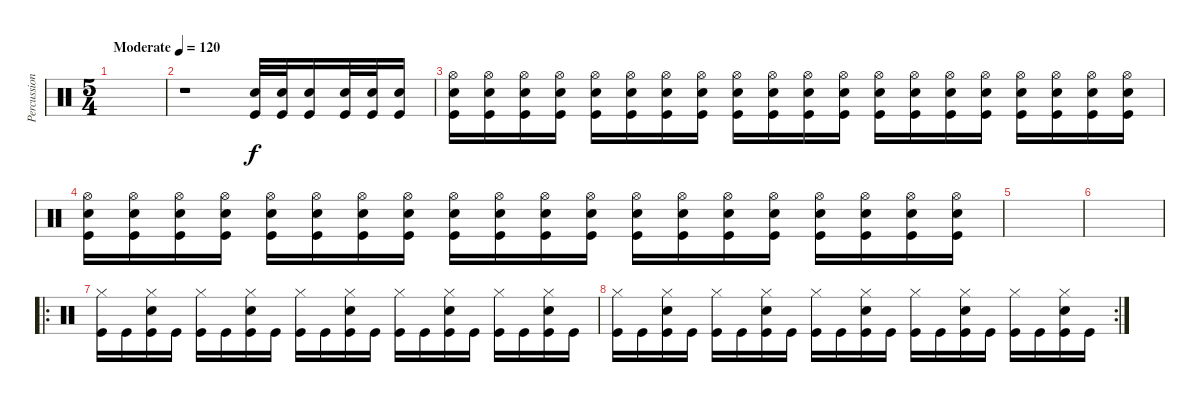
\track ("Percussion" "Percussion") {instrument percussion}
\staff {score}
\articulation defaults
\ts (5 4)
\tempo (120 "Moderate")
\clef neutral
\ks c
|
r.1 ("Snare (hit) 2" "Kick (hit)").32 ("Snare (hit) 2" "Kick (hit)").32 ("Snare (hit) 2" "Kick (hit)").16 ("Snare (hit) 2" "Kick (hit)").32 ("Snare (hit) 2" "Kick (hit)").32 ("Snare (hit) 2" "Kick (hit)").16 |
("Hi-Hat (open)" "Snare (hit) 2" "Kick (hit)").16 ("Hi-Hat (open)" "Snare (hit) 2" "Kick (hit)").16 ("Hi-Hat (open)" "Snare (hit) 2" "Kick (hit)").16 ("Hi-Hat (open)" "Snare (hit) 2" "Kick (hit)").16 ("Hi-Hat (open)" "Snare (hit) 2" "Kick (hit)").16 ("Hi-Hat (open)" "Snare (hit) 2" "Kick (hit)").16 ("Hi-Hat (open)" "Snare (hit) 2" "Kick (hit)").16 ("Hi-Hat (open)" "Snare (hit) 2" "Kick (hit)").16 ("Hi-Hat (open)" "Snare (hit) 2" "Kick (hit)").16 ("Hi-Hat (open)" "Snare (hit) 2" "Kick (hit)").16 ("Hi-Hat (open)" "Snare (hit) 2" "Kick (hit)").16 ("Hi-Hat (open)" "Snare (hit) 2" "Kick (hit)").16 ("Hi-Hat (open)" "Snare (hit) 2" "Kick (hit)").16 ("Hi-Hat (open)" "Snare (hit) 2" "Kick (hit)").16 ("Hi-Hat (open)" "Snare (hit) 2" "Kick (hit)").16 ("Hi-Hat (open)" "Snare (hit) 2" "Kick (hit)").16 ("Hi-Hat (open)" "Snare (hit) 2" "Kick (hit)").16 ("Hi-Hat (open)" "Snare (hit) 2" "Kick (hit)").16 ("Hi-Hat (open)" "Snare (hit) 2" "Kick (hit)").16 ("Hi-Hat (open)" "Snare (hit) 2" "Kick (hit)").16 |
("Hi-Hat (open)" "Snare (hit) 2" "Kick (hit)").16 ("Hi-Hat (open)" "Snare (hit) 2" "Kick (hit)").16 ("Hi-Hat (open)" "Snare (hit) 2" "Kick (hit)").16 ("Hi-Hat (open)" "Snare (hit) 2" "Kick (hit)").16 ("Hi-Hat (open)" "Snare (hit) 2" "Kick (hit)").16 ("Hi-Hat (open)" "Snare (hit) 2" "Kick (hit)").16 ("Hi-Hat (open)" "Snare (hit) 2" "Kick (hit)").16 ("Hi-Hat (open)" "Snare (hit) 2" "Kick (hit)").16 ("Hi-Hat (open)" "Snare (hit) 2" "Kick (hit)").16 ("Hi-Hat (open)" "Snare (hit) 2" "Kick (hit)").16 ("Hi-Hat (open)" "Snare (hit) 2" "Kick (hit)").16 ("Hi-Hat (open)" "Snare (hit) 2" "Kick (hit)").16 ("Hi-Hat (open)" "Snare (hit) 2" "Kick (hit)").16 ("Hi-Hat (open)" "Snare (hit) 2" "Kick (hit)").16 ("Hi-Hat (open)" "Snare (hit) 2" "Kick (hit)").16 ("Hi-Hat (open)" "Snare (hit) 2" "Kick (hit)").16 ("Hi-Hat (open)" "Snare (hit) 2" "Kick (hit)").16 ("Hi-Hat (open)" "Snare (hit) 2" "Kick (hit)").16 ("Hi-Hat (open)" "Snare (hit) 2" "Kick (hit)").16 ("Hi-Hat (open)" "Snare (hit) 2" "Kick (hit)").16 |
|
|
\ro
("Hi-Hat (closed)" "Kick (hit)").16 "Kick (hit)".16 ("Hi-Hat (closed)" "Snare (hit) 2" "Kick (hit)").16 "Kick (hit)".16 ("Hi-Hat (closed)" "Kick (hit)").16 "Kick (hit)".16 ("Hi-Hat (closed)" "Snare (hit) 2" "Kick (hit)").16 "Kick (hit)".16 ("Hi-Hat (closed)" "Kick (hit)").16 "Kick (hit)".16 ("Hi-Hat (closed)" "Snare (hit) 2" "Kick (hit)").16 "Kick (hit)".16 ("Hi-Hat (closed)" "Kick (hit)").16 "Kick (hit)".16 ("Hi-Hat (closed)" "Snare (hit) 2" "Kick (hit)").16 "Kick (hit)".16 ("Hi-Hat (closed)" "Kick (hit)").16 "Kick (hit)".16 ("Hi-Hat (closed)" "Snare (hit) 2" "Kick (hit)").16 "Kick (hit)".16 |
\rc 2
("Hi-Hat (closed)" "Kick (hit)").16 "Kick (hit)".16 ("Hi-Hat (closed)" "Snare (hit) 2" "Kick (hit)").16 "Kick (hit)".16 ("Hi-Hat (closed)" "Kick (hit)").16 "Kick (hit)".16 ("Hi-Hat (closed)" "Snare (hit) 2" "Kick (hit)").16 "Kick (hit)".16 ("Hi-Hat (closed)" "Kick (hit)").16 "Kick (hit)".16 ("Hi-Hat (closed)" "Snare (hit) 2" "Kick (hit)").16 "Kick (hit)".16 ("Hi-Hat (closed)" "Kick (hit)").16 "Kick (hit)".16 ("Hi-Hat (closed)" "Snare (hit) 2" "Kick (hit)").16 "Kick (hit)".16 ("Hi-Hat (closed)" "Kick (hit)").16 "Kick (hit)".16 ("Hi-Hat (closed)" "Snare (hit) 2" "Kick (hit)").16 "Kick (hit)".16
